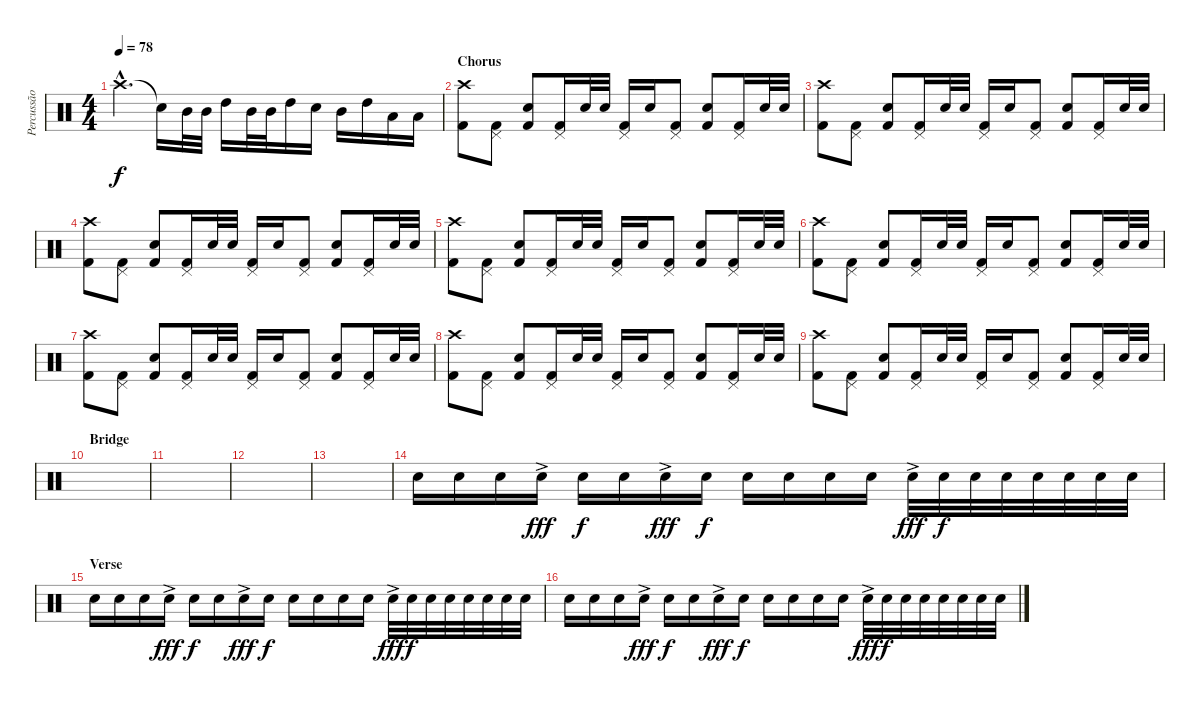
\track ("Percussão" "Percussão") {instrument percussion}
\staff {score}
\articulation defaults
\ts (4 4)
\tempo 78
\clef neutral
\ks c "Crash high (hit)"{hac}.4{d dy f} "Snare (hit)"{t}.16 "Mid Tom (hit)".32 "Mid Tom (hit)".32 "High Tom (hit)".16 "Mid Tom (hit)".32 "Mid Tom (hit)".32 "High Tom (hit)".16 "Electric Snare (hit)".16 "Mid Tom (hit)".16 "High Tom (hit)".16 "Low Tom (hit)".16 "Low Tom (hit)".16
|
\section ("" "Chorus")
("Crash high (hit)" "Kick (hit) 2").8 ("Pedal Hi-Hat (hit)" "Kick (hit) 2").8 ("Electric Snare (hit)" "Kick (hit) 2").8 ("Pedal Hi-Hat (hit)" "Kick (hit) 2").16 "Electric Snare (hit)".32 "Electric Snare (hit)".32 ("Pedal Hi-Hat (hit)" "Kick (hit) 2").16 "Electric Snare (hit)".16 ("Pedal Hi-Hat (hit)" "Kick (hit) 2").8 ("Electric Snare (hit)" "Kick (hit) 2").8 ("Pedal Hi-Hat (hit)" "Kick (hit) 2").16 "Electric Snare (hit)".32 "Electric Snare (hit)".32 |
("Crash high (hit)" "Kick (hit) 2").8 ("Pedal Hi-Hat (hit)" "Kick (hit) 2").8 ("Electric Snare (hit)" "Kick (hit) 2").8 ("Pedal Hi-Hat (hit)" "Kick (hit) 2").16 "Electric Snare (hit)".32 "Electric Snare (hit)".32 ("Pedal Hi-Hat (hit)" "Kick (hit) 2").16 "Electric Snare (hit)".16 ("Pedal Hi-Hat (hit)" "Kick (hit) 2").8 ("Electric Snare (hit)" "Kick (hit) 2").8 ("Pedal Hi-Hat (hit)" "Kick (hit) 2").16 "Electric Snare (hit)".32 "Electric Snare (hit)".32 |
("Crash high (hit)" "Kick (hit) 2").8 ("Pedal Hi-Hat (hit)" "Kick (hit) 2").8 ("Electric Snare (hit)" "Kick (hit) 2").8 ("Pedal Hi-Hat (hit)" "Kick (hit) 2").16 "Electric Snare (hit)".32 "Electric Snare (hit)".32 ("Pedal Hi-Hat (hit)" "Kick (hit) 2").16 "Electric Snare (hit)".16 ("Pedal Hi-Hat (hit)" "Kick (hit) 2").8 ("Electric Snare (hit)" "Kick (hit) 2").8 ("Pedal Hi-Hat (hit)" "Kick (hit) 2").16 "Electric Snare (hit)".32 "Electric Snare (hit)".32 |
("Crash high (hit)" "Kick (hit) 2").8 ("Pedal Hi-Hat (hit)" "Kick (hit) 2").8 ("Electric Snare (hit)" "Kick (hit) 2").8 ("Pedal Hi-Hat (hit)" "Kick (hit) 2").16 "Electric Snare (hit)".32 "Electric Snare (hit)".32 ("Pedal Hi-Hat (hit)" "Kick (hit) 2").16 "Electric Snare (hit)".16 ("Pedal Hi-Hat (hit)" "Kick (hit) 2").8 ("Electric Snare (hit)" "Kick (hit) 2").8 ("Pedal Hi-Hat (hit)" "Kick (hit) 2").16 "Electric Snare (hit)".32 "Electric Snare (hit)".32 |
("Crash high (hit)" "Kick (hit) 2").8 ("Pedal Hi-Hat (hit)" "Kick (hit) 2").8 ("Electric Snare (hit)" "Kick (hit) 2").8 ("Pedal Hi-Hat (hit)" "Kick (hit) 2").16 "Electric Snare (hit)".32 "Electric Snare (hit)".32 ("Pedal Hi-Hat (hit)" "Kick (hit) 2").16 "Electric Snare (hit)".16 ("Pedal Hi-Hat (hit)" "Kick (hit) 2").8 ("Electric Snare (hit)" "Kick (hit) 2").8 ("Pedal Hi-Hat (hit)" "Kick (hit) 2").16 "Electric Snare (hit)".32 "Electric Snare (hit)".32 |
("Crash high (hit)" "Kick (hit) 2").8 ("Pedal Hi-Hat (hit)" "Kick (hit) 2").8 ("Electric Snare (hit)" "Kick (hit) 2").8 ("Pedal Hi-Hat (hit)" "Kick (hit) 2").16 "Electric Snare (hit)".32 "Electric Snare (hit)".32 ("Pedal Hi-Hat (hit)" "Kick (hit) 2").16 "Electric Snare (hit)".16 ("Pedal Hi-Hat (hit)" "Kick (hit) 2").8 ("Electric Snare (hit)" "Kick (hit) 2").8 ("Pedal Hi-Hat (hit)" "Kick (hit) 2").16 "Electric Snare (hit)".32 "Electric Snare (hit)".32 |
("Crash high (hit)" "Kick (hit) 2").8 ("Pedal Hi-Hat (hit)" "Kick (hit) 2").8 ("Electric Snare (hit)" "Kick (hit) 2").8 ("Pedal Hi-Hat (hit)" "Kick (hit) 2").16 "Electric Snare (hit)".32 "Electric Snare (hit)".32 ("Pedal Hi-Hat (hit)" "Kick (hit) 2").16 "Electric Snare (hit)".16 ("Pedal Hi-Hat (hit)" "Kick (hit) 2").8 ("Electric Snare (hit)" "Kick (hit) 2").8 ("Pedal Hi-Hat (hit)" "Kick (hit) 2").16 "Electric Snare (hit)".32 "Electric Snare (hit)".32 |
("Crash high (hit)" "Kick (hit) 2").8 ("Pedal Hi-Hat (hit)" "Kick (hit) 2").8 ("Electric Snare (hit)" "Kick (hit) 2").8 ("Pedal Hi-Hat (hit)" "Kick (hit) 2").16 "Electric Snare (hit)".32 "Electric Snare (hit)".32 ("Pedal Hi-Hat (hit)" "Kick (hit) 2").16 "Electric Snare (hit)".16 ("Pedal Hi-Hat (hit)" "Kick (hit) 2").8 ("Electric Snare (hit)" "Kick (hit) 2").8 ("Pedal Hi-Hat (hit)" "Kick (hit) 2").16 "Electric Snare (hit)".32 "Electric Snare (hit)".32 |
\section ("" "Bridge")
|
|
|
|
"Electric Snare (hit)".16{volume 9} "Electric Snare (hit)".16 "Electric Snare (hit)".16 "Electric Snare (hit)"{ac}.16{dy fff} "Electric Snare (hit)".16{dy f} "Electric Snare (hit)".16 "Electric Snare (hit)"{ac}.16{dy fff} "Electric Snare (hit)".16{dy f} "Electric Snare (hit)".16 "Electric Snare (hit)".16 "Electric Snare (hit)".16 "Electric Snare (hit)".16 "Electric Snare (hit)"{ac}.32{dy fff} "Electric Snare (hit)".32{dy f} "Electric Snare (hit)".32 "Electric Snare (hit)".32 "Electric Snare (hit)".32 "Electric Snare (hit)".32 "Electric Snare (hit)".32 "Electric Snare (hit)".32 |
\section ("" "Verse")
"Electric Snare (hit)".16 "Electric Snare (hit)".16 "Electric Snare (hit)".16 "Electric Snare (hit)"{ac}.16{dy fff} "Electric Snare (hit)".16{dy f} "Electric Snare (hit)".16 "Electric Snare (hit)"{ac}.16{dy fff} "Electric Snare (hit)".16{dy f} "Electric Snare (hit)".16 "Electric Snare (hit)".16 "Electric Snare (hit)".16 "Electric Snare (hit)".16 "Electric Snare (hit)"{ac}.32{dy fff} "Electric Snare (hit)".32{dy f} "Electric Snare (hit)".32 "Electric Snare (hit)".32 "Electric Snare (hit)".32 "Electric Snare (hit)".32 "Electric Snare (hit)".32 "Electric Snare (hit)".32 |
"Electric Snare (hit)".16 "Electric Snare (hit)".16 "Electric Snare (hit)".16 "Electric Snare (hit)"{ac}.16{dy fff} "Electric Snare (hit)".16{dy f} "Electric Snare (hit)".16 "Electric Snare (hit)"{ac}.16{dy fff} "Electric Snare (hit)".16{dy f} "Electric Snare (hit)".16 "Electric Snare (hit)".16 "Electric Snare (hit)".16 "Electric Snare (hit)".16 "Electric Snare (hit)"{ac}.32{dy fff} "Electric Snare (hit)".32{dy f} "Electric Snare (hit)".32 "Electric Snare (hit)".32 "Electric Snare (hit)".32 "Electric Snare (hit)".32 "Electric Snare (hit)".32 "Electric Snare (hit)".32
